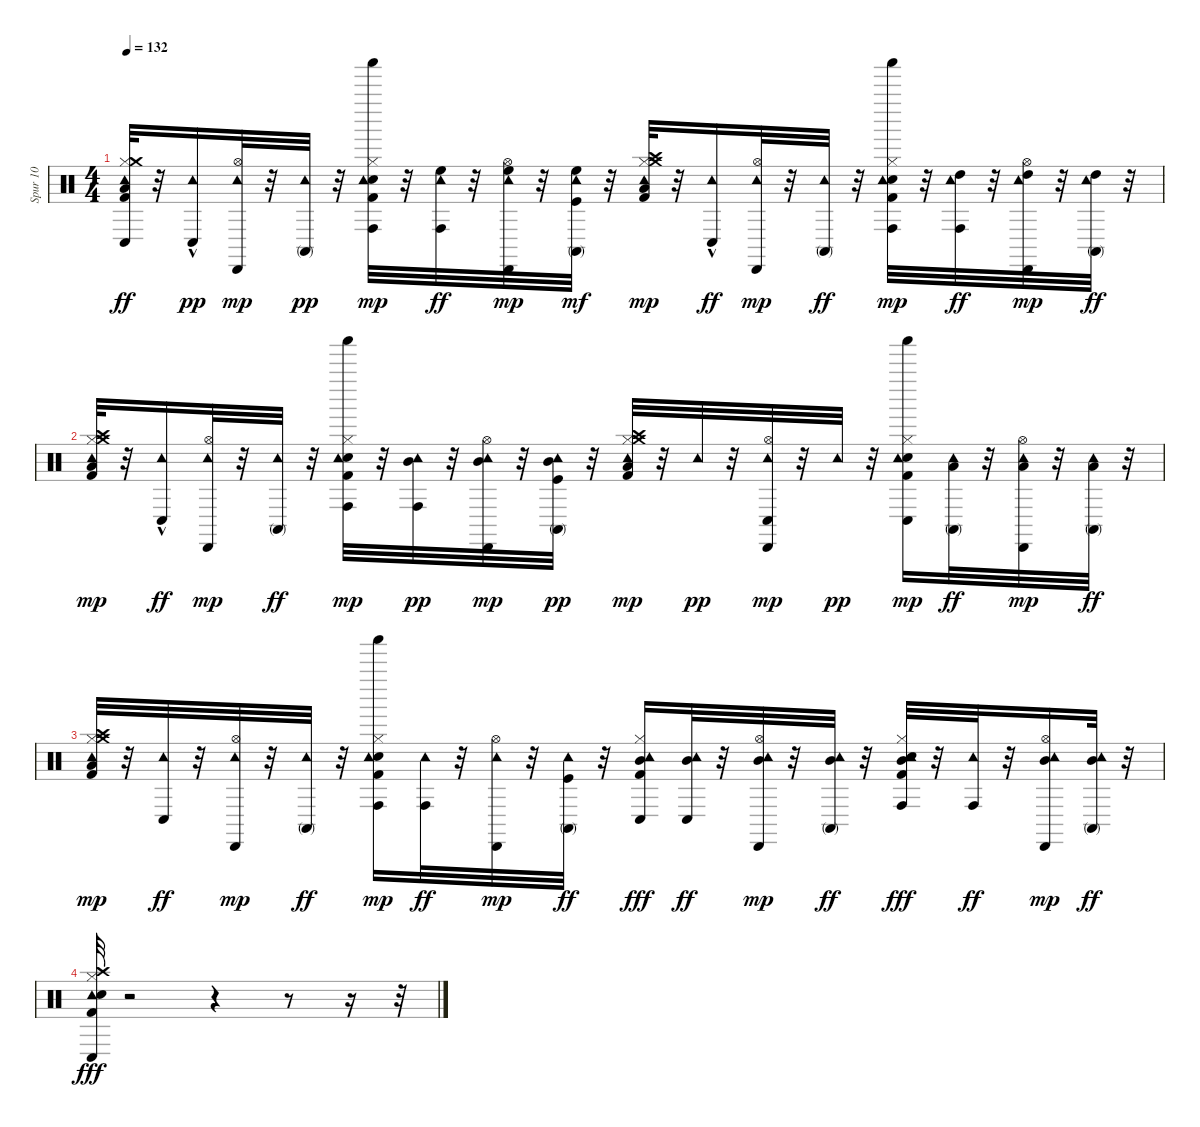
\track ("Spur 10" "Spur 10") {instrument percussion}
\staff {score}
\articulation defaults
\ts (4 4)
\tempo 132
\clef neutral
\ks c
("Kick (hit) 2" "Hi-Hat (closed)" "Crash medium (hit)" "Low Tom (hit)" "Tambourine (hit)" "Conga low (hit)").32{dy ff} r.32 ("Tambourine (hit)" "Conga low (hit)"{hac}).16{dy pp} ("Hi-Hat (open)" "Tambourine (hit)" "Cabasa (hit)").32{dy mp} r.32 ("Tambourine (hit)" "Conga high (mute)").32{dy pp} r.32 ("Snare (hit) 2" "Kick (hit) 2" "Hi-Hat (closed)" "Tambourine (hit)" "Conga high (hit)" "Shaker (hit)").32{dy mp} r.32 ("High Floor Tom (hit)" "Tambourine (hit)" "Conga high (hit)").32{dy ff} r.32 ("Hi-Hat (open)" "High Floor Tom (hit)" "Tambourine (hit)" "Cabasa (hit)").32{dy mp} r.32 ("Kick (hit)" "High Floor Tom (hit)" "Tambourine (hit)" "Conga high (mute)").32{dy mf} r.32 ("Kick (hit) 2" "Hi-Hat (closed)" "Crash medium (hit)" "Crash high (hit)" "Low Tom (hit)" "Tambourine (hit)").32{dy mp} r.32 ("Tambourine (hit)" "Conga low (hit)"{hac}).16{dy ff} ("Hi-Hat (open)" "Tambourine (hit)" "Cabasa (hit)").32{dy mp} r.32 ("Tambourine (hit)" "Conga high (mute)").32{dy ff} r.32 ("Snare (hit) 2" "Kick (hit) 2" "Hi-Hat (closed)" "Tambourine (hit)" "Conga high (hit)" "Shaker (hit)").32{dy mp} r.32 ("High Tom (hit)" "Tambourine (hit)" "Conga high (hit)").32{dy ff} r.32 ("Hi-Hat (open)" "High Tom (hit)" "Tambourine (hit)" "Cabasa (hit)").32{dy mp} r.32 ("High Tom (hit)" "Tambourine (hit)" "Conga high (mute)").32{dy ff} r.32 |
("Kick (hit) 2" "Hi-Hat (closed)" "Low Tom (hit)" "Crash medium (hit)" "Crash high (hit)" "Tambourine (hit)").32{dy mp} r.32 ("Tambourine (hit)" "Conga low (hit)"{hac}).16{dy ff} ("Hi-Hat (open)" "Tambourine (hit)" "Cabasa (hit)").32{dy mp} r.32 ("Tambourine (hit)" "Conga high (mute)").32{dy ff} r.32 ("Snare (hit) 2" "Kick (hit) 2" "Hi-Hat (closed)" "Tambourine (hit)" "Conga high (hit)" "Shaker (hit)").32{dy mp} r.32 ("Mid Tom (hit)" "Tambourine (hit)" "Conga high (hit)").32{dy pp} r.32 ("Hi-Hat (open)" "Mid Tom (hit)" "Tambourine (hit)" "Cabasa (hit)").32{dy mp} r.32 ("Kick (hit)" "Mid Tom (hit)" "Tambourine (hit)" "Conga high (mute)").32{dy pp} r.32 ("Kick (hit) 2" "Hi-Hat (closed)" "Crash medium (hit)" "Crash high (hit)" "Low Tom (hit)" "Tambourine (hit)").32{dy mp} r.32 "Tambourine (hit)".32{dy pp} r.32 ("Hi-Hat (open)" "Tambourine (hit)" "Conga low (hit)" "Cabasa (hit)").32{dy mp} r.32 "Tambourine (hit)".32{dy pp} r.32 ("Snare (hit) 2" "Kick (hit) 2" "Hi-Hat (closed)" "Tambourine (hit)" "Conga low (hit)" "Shaker (hit)").16{dy mp} ("Low Tom (hit)" "Tambourine (hit)" "Conga high (mute)").32{dy ff} r.32 ("Hi-Hat (open)" "Low Tom (hit)" "Tambourine (hit)" "Cabasa (hit)").32{dy mp} r.32 ("Low Tom (hit)" "Tambourine (hit)" "Conga high (mute)").32{dy ff} r.32 |
("Kick (hit) 2" "Hi-Hat (closed)" "Crash medium (hit)" "Low Tom (hit)" "Crash high (hit)" "Tambourine (hit)").32{dy mp} r.32 ("Tambourine (hit)" "Conga low (hit)").32{dy ff} r.32 ("Hi-Hat (open)" "Tambourine (hit)" "Cabasa (hit)").32{dy mp} r.32 ("Tambourine (hit)" "Conga high (mute)").32{dy ff} r.32 ("Snare (hit) 2" "Kick (hit) 2" "Hi-Hat (closed)" "Tambourine (hit)" "Conga high (hit)" "Shaker (hit)").16{dy mp} ("Tambourine (hit)" "Conga high (hit)").32{dy ff} r.32 ("Hi-Hat (open)" "Tambourine (hit)" "Cabasa (hit)").32{dy mp} r.32 ("Kick (hit)" "Tambourine (hit)" "Conga high (mute)").32{dy ff} r.32 ("Kick (hit) 2" "Hi-Hat (closed)" "Mid Tom (hit)" "Tambourine (hit)" "Conga low (hit)").16{dy fff} ("Mid Tom (hit)" "Tambourine (hit)" "Conga low (hit)").32{dy ff} r.32 ("Hi-Hat (open)" "Mid Tom (hit)" "Tambourine (hit)" "Cabasa (hit)").32{dy mp} r.32 ("Mid Tom (hit)" "Tambourine (hit)" "Conga high (mute)").32{dy ff} r.32 ("Snare (hit) 2" "Kick (hit) 2" "Hi-Hat (closed)" "Mid Tom (hit)" "Tambourine (hit)" "Conga high (hit)").32{dy fff} r.32 ("Tambourine (hit)" "Conga high (hit)").32{dy ff} r.32 ("Hi-Hat (open)" "Mid Tom (hit)" "Tambourine (hit)" "Cabasa (hit)").16{dy mp} ("Mid Tom (hit)" "Tambourine (hit)" "Conga high (mute)").32{dy ff} r.32 |
("Kick (hit) 2" "Hi-Hat (closed)" "Crash high (hit)" "Tambourine (hit)" "Conga low (hit)" "Hand Clap (hit)").32{dy fff} r.2 r.4 r.8 r.16 r.32
